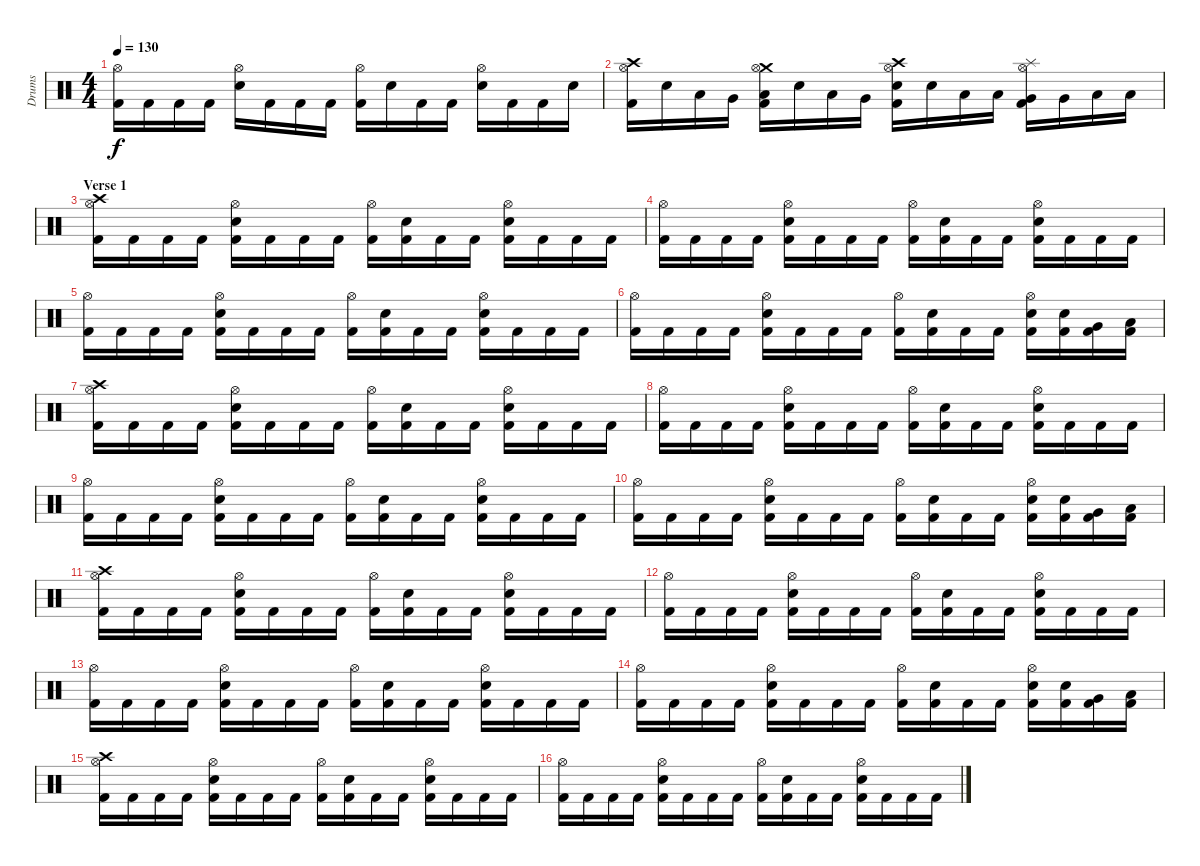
\track ("Drums" "Drums") {instrument percussion}
\staff {score}
\articulation defaults
\ts (4 4)
\tempo 130
\clef neutral
\ks c
("Hi-Hat (open)" "Kick (hit) 2").16{dy f} "Kick (hit) 2".16 "Kick (hit) 2".16 "Kick (hit) 2".16 ("Hi-Hat (open)" "Electric Snare (hit)").16 "Kick (hit) 2".16 "Kick (hit) 2".16 "Kick (hit) 2".16 ("Hi-Hat (open)" "Kick (hit) 2").16 "Electric Snare (hit)".16 "Kick (hit) 2".16 "Kick (hit) 2".16 ("Hi-Hat (open)" "Electric Snare (hit)").16 "Kick (hit) 2".16 "Kick (hit) 2".16 "Electric Snare (hit)".16 |
("Crash high (hit)" "Hi-Hat (open)" "Kick (hit) 2").16 "Electric Snare (hit)".16 "Low Tom (hit)".16 "Very Low Tom (hit)".16 ("Crash medium (hit)" "Hi-Hat (open)" "Low Floor Tom (hit)" "Kick (hit) 2").16 "Electric Snare (hit)".16 "Low Tom (hit)".16 "Very Low Tom (hit)".16 ("Crash high (hit)" "Hi-Hat (open)" "Electric Snare (hit)" "Kick (hit) 2").16 "Electric Snare (hit)".16 "Low Tom (hit)".16 "Low Tom (hit)".16 ("Splash (hit)" "Hi-Hat (open)" "Very Low Tom (hit)" "Kick (hit) 2").16 "Very Low Tom (hit)".16 "Low Floor Tom (hit)".16 "Low Floor Tom (hit)".16 |
\section ("" "Verse 1")
("Crash high (hit)" "Hi-Hat (open)" "Kick (hit) 2").16 "Kick (hit) 2".16 "Kick (hit) 2".16 "Kick (hit) 2".16 ("Hi-Hat (open)" "Electric Snare (hit)" "Kick (hit) 2").16 "Kick (hit) 2".16 "Kick (hit) 2".16 "Kick (hit) 2".16 ("Hi-Hat (open)" "Kick (hit) 2").16 ("Electric Snare (hit)" "Kick (hit) 2").16 "Kick (hit) 2".16 "Kick (hit) 2".16 ("Hi-Hat (open)" "Electric Snare (hit)" "Kick (hit) 2").16 "Kick (hit) 2".16 "Kick (hit) 2".16 "Kick (hit) 2".16 |
("Hi-Hat (open)" "Kick (hit) 2").16 "Kick (hit) 2".16 "Kick (hit) 2".16 "Kick (hit) 2".16 ("Hi-Hat (open)" "Electric Snare (hit)" "Kick (hit) 2").16 "Kick (hit) 2".16 "Kick (hit) 2".16 "Kick (hit) 2".16 ("Hi-Hat (open)" "Kick (hit) 2").16 ("Electric Snare (hit)" "Kick (hit) 2").16 "Kick (hit) 2".16 "Kick (hit) 2".16 ("Hi-Hat (open)" "Electric Snare (hit)" "Kick (hit) 2").16 "Kick (hit) 2".16 "Kick (hit) 2".16 "Kick (hit) 2".16 |
("Hi-Hat (open)" "Kick (hit) 2").16 "Kick (hit) 2".16 "Kick (hit) 2".16 "Kick (hit) 2".16 ("Hi-Hat (open)" "Electric Snare (hit)" "Kick (hit) 2").16 "Kick (hit) 2".16 "Kick (hit) 2".16 "Kick (hit) 2".16 ("Hi-Hat (open)" "Kick (hit) 2").16 ("Electric Snare (hit)" "Kick (hit) 2").16 "Kick (hit) 2".16 "Kick (hit) 2".16 ("Hi-Hat (open)" "Electric Snare (hit)" "Kick (hit) 2").16 "Kick (hit) 2".16 "Kick (hit) 2".16 "Kick (hit) 2".16 |
("Hi-Hat (open)" "Kick (hit) 2").16 "Kick (hit) 2".16 "Kick (hit) 2".16 "Kick (hit) 2".16 ("Hi-Hat (open)" "Electric Snare (hit)" "Kick (hit) 2").16 "Kick (hit) 2".16 "Kick (hit) 2".16 "Kick (hit) 2".16 ("Hi-Hat (open)" "Kick (hit) 2").16 ("Electric Snare (hit)" "Kick (hit) 2").16 "Kick (hit) 2".16 "Kick (hit) 2".16 ("Hi-Hat (open)" "Electric Snare (hit)" "Kick (hit) 2").16 ("Electric Snare (hit)" "Kick (hit) 2").16 ("Very Low Tom (hit)" "Kick (hit) 2").16 ("Low Floor Tom (hit)" "Kick (hit) 2").16 |
("Crash high (hit)" "Hi-Hat (open)" "Kick (hit) 2").16 "Kick (hit) 2".16 "Kick (hit) 2".16 "Kick (hit) 2".16 ("Hi-Hat (open)" "Electric Snare (hit)" "Kick (hit) 2").16 "Kick (hit) 2".16 "Kick (hit) 2".16 "Kick (hit) 2".16 ("Hi-Hat (open)" "Kick (hit) 2").16 ("Electric Snare (hit)" "Kick (hit) 2").16 "Kick (hit) 2".16 "Kick (hit) 2".16 ("Hi-Hat (open)" "Electric Snare (hit)" "Kick (hit) 2").16 "Kick (hit) 2".16 "Kick (hit) 2".16 "Kick (hit) 2".16 |
("Hi-Hat (open)" "Kick (hit) 2").16 "Kick (hit) 2".16 "Kick (hit) 2".16 "Kick (hit) 2".16 ("Hi-Hat (open)" "Electric Snare (hit)" "Kick (hit) 2").16 "Kick (hit) 2".16 "Kick (hit) 2".16 "Kick (hit) 2".16 ("Hi-Hat (open)" "Kick (hit) 2").16 ("Electric Snare (hit)" "Kick (hit) 2").16 "Kick (hit) 2".16 "Kick (hit) 2".16 ("Hi-Hat (open)" "Electric Snare (hit)" "Kick (hit) 2").16 "Kick (hit) 2".16 "Kick (hit) 2".16 "Kick (hit) 2".16 |
("Hi-Hat (open)" "Kick (hit) 2").16 "Kick (hit) 2".16 "Kick (hit) 2".16 "Kick (hit) 2".16 ("Hi-Hat (open)" "Electric Snare (hit)" "Kick (hit) 2").16 "Kick (hit) 2".16 "Kick (hit) 2".16 "Kick (hit) 2".16 ("Hi-Hat (open)" "Kick (hit) 2").16 ("Electric Snare (hit)" "Kick (hit) 2").16 "Kick (hit) 2".16 "Kick (hit) 2".16 ("Hi-Hat (open)" "Electric Snare (hit)" "Kick (hit) 2").16 "Kick (hit) 2".16 "Kick (hit) 2".16 "Kick (hit) 2".16 |
("Hi-Hat (open)" "Kick (hit) 2").16 "Kick (hit) 2".16 "Kick (hit) 2".16 "Kick (hit) 2".16 ("Hi-Hat (open)" "Electric Snare (hit)" "Kick (hit) 2").16 "Kick (hit) 2".16 "Kick (hit) 2".16 "Kick (hit) 2".16 ("Hi-Hat (open)" "Kick (hit) 2").16 ("Electric Snare (hit)" "Kick (hit) 2").16 "Kick (hit) 2".16 "Kick (hit) 2".16 ("Hi-Hat (open)" "Electric Snare (hit)" "Kick (hit) 2").16 ("Electric Snare (hit)" "Kick (hit) 2").16 ("Very Low Tom (hit)" "Kick (hit) 2").16 ("Low Floor Tom (hit)" "Kick (hit) 2").16 |
("Crash high (hit)" "Hi-Hat (open)" "Kick (hit) 2").16 "Kick (hit) 2".16 "Kick (hit) 2".16 "Kick (hit) 2".16 ("Hi-Hat (open)" "Electric Snare (hit)" "Kick (hit) 2").16 "Kick (hit) 2".16 "Kick (hit) 2".16 "Kick (hit) 2".16 ("Hi-Hat (open)" "Kick (hit) 2").16 ("Electric Snare (hit)" "Kick (hit) 2").16 "Kick (hit) 2".16 "Kick (hit) 2".16 ("Hi-Hat (open)" "Electric Snare (hit)" "Kick (hit) 2").16 "Kick (hit) 2".16 "Kick (hit) 2".16 "Kick (hit) 2".16 |
("Hi-Hat (open)" "Kick (hit) 2").16 "Kick (hit) 2".16 "Kick (hit) 2".16 "Kick (hit) 2".16 ("Hi-Hat (open)" "Electric Snare (hit)" "Kick (hit) 2").16 "Kick (hit) 2".16 "Kick (hit) 2".16 "Kick (hit) 2".16 ("Hi-Hat (open)" "Kick (hit) 2").16 ("Electric Snare (hit)" "Kick (hit) 2").16 "Kick (hit) 2".16 "Kick (hit) 2".16 ("Hi-Hat (open)" "Electric Snare (hit)" "Kick (hit) 2").16 "Kick (hit) 2".16 "Kick (hit) 2".16 "Kick (hit) 2".16 |
("Hi-Hat (open)" "Kick (hit) 2").16 "Kick (hit) 2".16 "Kick (hit) 2".16 "Kick (hit) 2".16 ("Hi-Hat (open)" "Electric Snare (hit)" "Kick (hit) 2").16 "Kick (hit) 2".16 "Kick (hit) 2".16 "Kick (hit) 2".16 ("Hi-Hat (open)" "Kick (hit) 2").16 ("Electric Snare (hit)" "Kick (hit) 2").16 "Kick (hit) 2".16 "Kick (hit) 2".16 ("Hi-Hat (open)" "Electric Snare (hit)" "Kick (hit) 2").16 "Kick (hit) 2".16 "Kick (hit) 2".16 "Kick (hit) 2".16 |
("Hi-Hat (open)" "Kick (hit) 2").16 "Kick (hit) 2".16 "Kick (hit) 2".16 "Kick (hit) 2".16 ("Hi-Hat (open)" "Electric Snare (hit)" "Kick (hit) 2").16 "Kick (hit) 2".16 "Kick (hit) 2".16 "Kick (hit) 2".16 ("Hi-Hat (open)" "Kick (hit) 2").16 ("Electric Snare (hit)" "Kick (hit) 2").16 "Kick (hit) 2".16 "Kick (hit) 2".16 ("Hi-Hat (open)" "Electric Snare (hit)" "Kick (hit) 2").16 ("Electric Snare (hit)" "Kick (hit) 2").16 ("Very Low Tom (hit)" "Kick (hit) 2").16 ("Low Floor Tom (hit)" "Kick (hit) 2").16 |
("Crash high (hit)" "Hi-Hat (open)" "Kick (hit) 2").16 "Kick (hit) 2".16 "Kick (hit) 2".16 "Kick (hit) 2".16 ("Hi-Hat (open)" "Electric Snare (hit)" "Kick (hit) 2").16 "Kick (hit) 2".16 "Kick (hit) 2".16 "Kick (hit) 2".16 ("Hi-Hat (open)" "Kick (hit) 2").16 ("Electric Snare (hit)" "Kick (hit) 2").16 "Kick (hit) 2".16 "Kick (hit) 2".16 ("Hi-Hat (open)" "Electric Snare (hit)" "Kick (hit) 2").16 "Kick (hit) 2".16 "Kick (hit) 2".16 "Kick (hit) 2".16 |
("Hi-Hat (open)" "Kick (hit) 2").16 "Kick (hit) 2".16 "Kick (hit) 2".16 "Kick (hit) 2".16 ("Hi-Hat (open)" "Electric Snare (hit)" "Kick (hit) 2").16 "Kick (hit) 2".16 "Kick (hit) 2".16 "Kick (hit) 2".16 ("Hi-Hat (open)" "Kick (hit) 2").16 ("Electric Snare (hit)" "Kick (hit) 2").16 "Kick (hit) 2".16 "Kick (hit) 2".16 ("Hi-Hat (open)" "Electric Snare (hit)" "Kick (hit) 2").16 "Kick (hit) 2".16 "Kick (hit) 2".16 "Kick (hit) 2".16
